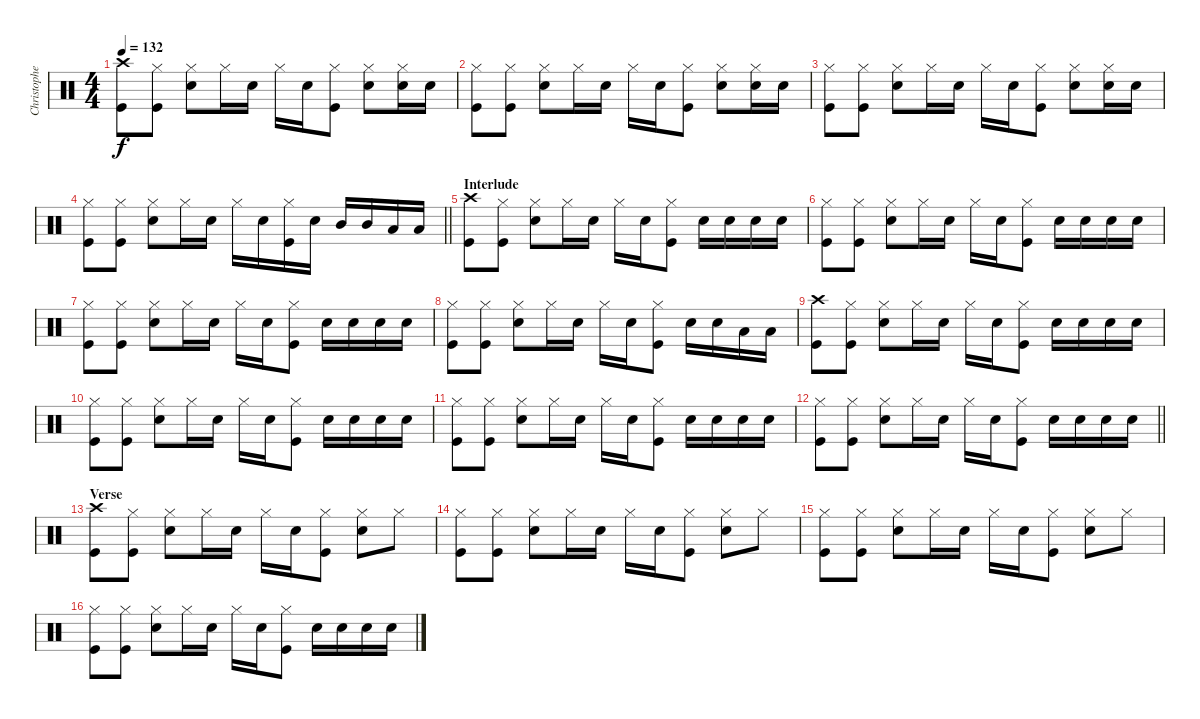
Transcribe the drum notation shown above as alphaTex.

\track ("Christopher - Drums" "Christophe") {instrument percussion}
\staff {score}
\articulation defaults
\ts (4 4)
\tempo 132
\clef neutral
\ks c
("Crash high (hit)" "Kick (hit)").8{dy f} ("Hi-Hat (closed)" "Kick (hit)").8 ("Hi-Hat (closed)" "Snare (hit) 2").8 "Hi-Hat (closed)".16 "Snare (hit) 2".16 "Hi-Hat (closed)".16 "Snare (hit) 2".16 ("Hi-Hat (closed)" "Kick (hit)").8 ("Hi-Hat (closed)" "Snare (hit) 2").8 ("Hi-Hat (closed)" "Snare (hit) 2").16 "Snare (hit) 2".16 |
("Hi-Hat (closed)" "Kick (hit)").8 ("Hi-Hat (closed)" "Kick (hit)").8 ("Hi-Hat (closed)" "Snare (hit) 2").8 "Hi-Hat (closed)".16 "Snare (hit) 2".16 "Hi-Hat (closed)".16 "Snare (hit) 2".16 ("Hi-Hat (closed)" "Kick (hit)").8 ("Hi-Hat (closed)" "Snare (hit) 2").8 ("Hi-Hat (closed)" "Snare (hit) 2").16 "Snare (hit) 2".16 |
("Hi-Hat (closed)" "Kick (hit)").8 ("Hi-Hat (closed)" "Kick (hit)").8 ("Hi-Hat (closed)" "Snare (hit) 2").8 "Hi-Hat (closed)".16 "Snare (hit) 2".16 "Hi-Hat (closed)".16 "Snare (hit) 2".16 ("Hi-Hat (closed)" "Kick (hit)").8 ("Hi-Hat (closed)" "Snare (hit) 2").8 ("Hi-Hat (closed)" "Snare (hit) 2").16 "Snare (hit) 2".16 |
\barLineRight lightlight
("Hi-Hat (closed)" "Kick (hit)").8 ("Hi-Hat (closed)" "Kick (hit)").8 ("Hi-Hat (closed)" "Snare (hit) 2").8 "Hi-Hat (closed)".16 "Snare (hit) 2".16 "Hi-Hat (closed)".16 "Snare (hit) 2".16 ("Hi-Hat (closed)" "Kick (hit)").16 "Snare (hit) 2".16 "Mid Tom (hit)".16 "Mid Tom (hit)".16 "Low Tom (hit)".16 "Low Tom (hit)".16 |
\section ("" "Interlude")
("Crash high (hit)" "Kick (hit)").8 ("Hi-Hat (closed)" "Kick (hit)").8 ("Hi-Hat (closed)" "Snare (hit) 2").8 "Hi-Hat (closed)".16 "Snare (hit) 2".16 "Hi-Hat (closed)".16 "Snare (hit) 2".16 ("Hi-Hat (closed)" "Kick (hit)").8 "Snare (hit) 2".16 "Snare (hit) 2".16 "Snare (hit) 2".16 "Snare (hit) 2".16 |
("Hi-Hat (closed)" "Kick (hit)").8 ("Hi-Hat (closed)" "Kick (hit)").8 ("Hi-Hat (closed)" "Snare (hit) 2").8 "Hi-Hat (closed)".16 "Snare (hit) 2".16 "Hi-Hat (closed)".16 "Snare (hit) 2".16 ("Hi-Hat (closed)" "Kick (hit)").8 "Snare (hit) 2".16 "Snare (hit) 2".16 "Snare (hit) 2".16 "Snare (hit) 2".16 |
("Hi-Hat (closed)" "Kick (hit)").8 ("Hi-Hat (closed)" "Kick (hit)").8 ("Hi-Hat (closed)" "Snare (hit) 2").8 "Hi-Hat (closed)".16 "Snare (hit) 2".16 "Hi-Hat (closed)".16 "Snare (hit) 2".16 ("Hi-Hat (closed)" "Kick (hit)").8 "Snare (hit) 2".16 "Snare (hit) 2".16 "Snare (hit) 2".16 "Snare (hit) 2".16 |
("Hi-Hat (closed)" "Kick (hit)").8 ("Hi-Hat (closed)" "Kick (hit)").8 ("Hi-Hat (closed)" "Snare (hit) 2").8 "Hi-Hat (closed)".16 "Snare (hit) 2".16 "Hi-Hat (closed)".16 "Snare (hit) 2".16 ("Hi-Hat (closed)" "Kick (hit)").8 "Snare (hit) 2".16 "Snare (hit) 2".16 "Low Tom (hit)".16 "Low Tom (hit)".16 |
("Crash high (hit)" "Kick (hit)").8 ("Hi-Hat (closed)" "Kick (hit)").8 ("Hi-Hat (closed)" "Snare (hit) 2").8 "Hi-Hat (closed)".16 "Snare (hit) 2".16 "Hi-Hat (closed)".16 "Snare (hit) 2".16 ("Hi-Hat (closed)" "Kick (hit)").8 "Snare (hit) 2".16 "Snare (hit) 2".16 "Snare (hit) 2".16 "Snare (hit) 2".16 |
("Hi-Hat (closed)" "Kick (hit)").8 ("Hi-Hat (closed)" "Kick (hit)").8 ("Hi-Hat (closed)" "Snare (hit) 2").8 "Hi-Hat (closed)".16 "Snare (hit) 2".16 "Hi-Hat (closed)".16 "Snare (hit) 2".16 ("Hi-Hat (closed)" "Kick (hit)").8 "Snare (hit) 2".16 "Snare (hit) 2".16 "Snare (hit) 2".16 "Snare (hit) 2".16 |
("Hi-Hat (closed)" "Kick (hit)").8 ("Hi-Hat (closed)" "Kick (hit)").8 ("Hi-Hat (closed)" "Snare (hit) 2").8 "Hi-Hat (closed)".16 "Snare (hit) 2".16 "Hi-Hat (closed)".16 "Snare (hit) 2".16 ("Hi-Hat (closed)" "Kick (hit)").8 "Snare (hit) 2".16 "Snare (hit) 2".16 "Snare (hit) 2".16 "Snare (hit) 2".16 |
\barLineRight lightlight
("Hi-Hat (closed)" "Kick (hit)").8 ("Hi-Hat (closed)" "Kick (hit)").8 ("Hi-Hat (closed)" "Snare (hit) 2").8 "Hi-Hat (closed)".16 "Snare (hit) 2".16 "Hi-Hat (closed)".16 "Snare (hit) 2".16 ("Hi-Hat (closed)" "Kick (hit)").8 "Snare (hit) 2".16 "Snare (hit) 2".16 "Snare (hit) 2".16 "Snare (hit) 2".16 |
\section ("" "Verse")
("Crash high (hit)" "Kick (hit)").8 ("Hi-Hat (closed)" "Kick (hit)").8 ("Hi-Hat (closed)" "Snare (hit) 2").8 "Hi-Hat (closed)".16 "Snare (hit) 2".16 "Hi-Hat (closed)".16 "Snare (hit) 2".16 ("Hi-Hat (closed)" "Kick (hit)").8 ("Hi-Hat (closed)" "Snare (hit) 2").8 "Hi-Hat (closed)".8 |
("Hi-Hat (closed)" "Kick (hit)").8 ("Hi-Hat (closed)" "Kick (hit)").8 ("Hi-Hat (closed)" "Snare (hit) 2").8 "Hi-Hat (closed)".16 "Snare (hit) 2".16 "Hi-Hat (closed)".16 "Snare (hit) 2".16 ("Hi-Hat (closed)" "Kick (hit)").8 ("Hi-Hat (closed)" "Snare (hit) 2").8 "Hi-Hat (closed)".8 |
("Hi-Hat (closed)" "Kick (hit)").8 ("Hi-Hat (closed)" "Kick (hit)").8 ("Hi-Hat (closed)" "Snare (hit) 2").8 "Hi-Hat (closed)".16 "Snare (hit) 2".16 "Hi-Hat (closed)".16 "Snare (hit) 2".16 ("Hi-Hat (closed)" "Kick (hit)").8 ("Hi-Hat (closed)" "Snare (hit) 2").8 "Hi-Hat (closed)".8 |
("Hi-Hat (closed)" "Kick (hit)").8 ("Hi-Hat (closed)" "Kick (hit)").8 ("Hi-Hat (closed)" "Snare (hit) 2").8 "Hi-Hat (closed)".16 "Snare (hit) 2".16 "Hi-Hat (closed)".16 "Snare (hit) 2".16 ("Hi-Hat (closed)" "Kick (hit)").8 "Snare (hit) 2".16 "Snare (hit) 2".16 "Snare (hit) 2".16 "Snare (hit) 2".16
